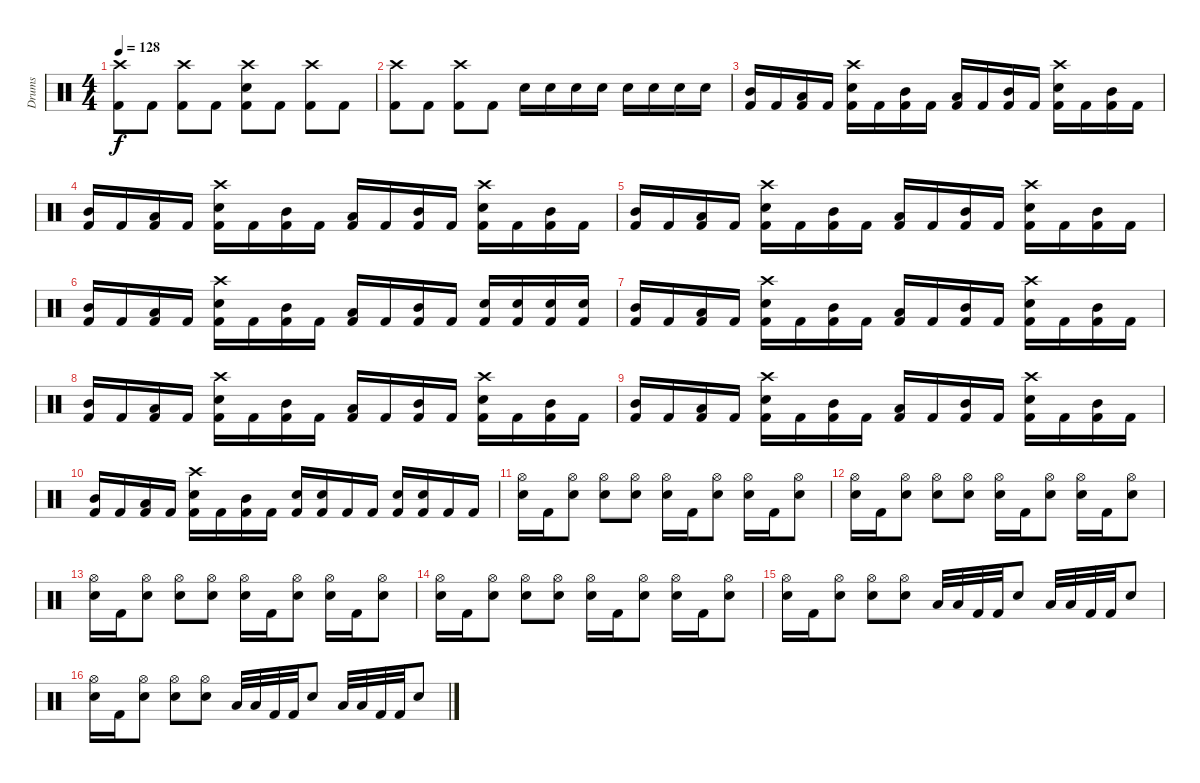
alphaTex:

\track ("Drums" "Drums") {instrument percussion}
\staff {score}
\articulation defaults
\ts (4 4)
\tempo 128
\clef neutral
\ks c
("Crash high (hit)" "Kick (hit) 2").8{dy f} "Kick (hit) 2".8 ("Crash high (hit)" "Kick (hit) 2").8 "Kick (hit) 2".8 ("Crash high (hit)" "Electric Snare (hit)" "Kick (hit) 2").8 "Kick (hit) 2".8 ("Crash high (hit)" "Kick (hit) 2").8 "Kick (hit) 2".8 |
("Crash high (hit)" "Kick (hit) 2").8 "Kick (hit) 2".8 ("Crash high (hit)" "Kick (hit) 2").8 "Kick (hit) 2".8 "Electric Snare (hit)".16 "Electric Snare (hit)".16 "Electric Snare (hit)".16 "Electric Snare (hit)".16 "Electric Snare (hit)".16 "Electric Snare (hit)".16 "Electric Snare (hit)".16 "Electric Snare (hit)".16 |
("Mid Tom (hit)" "Kick (hit) 2").16 "Kick (hit) 2".16 ("Low Tom (hit)" "Kick (hit) 2").16 "Kick (hit) 2".16 ("Crash high (hit)" "Electric Snare (hit)" "Kick (hit) 2").16 "Kick (hit) 2".16 ("Mid Tom (hit)" "Kick (hit) 2").16 "Kick (hit) 2".16 ("Low Tom (hit)" "Kick (hit) 2").16 "Kick (hit) 2".16 ("Mid Tom (hit)" "Kick (hit) 2").16 "Kick (hit) 2".16 ("Crash high (hit)" "Electric Snare (hit)" "Kick (hit) 2").16 "Kick (hit) 2".16 ("Mid Tom (hit)" "Kick (hit) 2").16 "Kick (hit) 2".16 |
("Mid Tom (hit)" "Kick (hit) 2").16 "Kick (hit) 2".16 ("Low Tom (hit)" "Kick (hit) 2").16 "Kick (hit) 2".16 ("Crash high (hit)" "Electric Snare (hit)" "Kick (hit) 2").16 "Kick (hit) 2".16 ("Mid Tom (hit)" "Kick (hit) 2").16 "Kick (hit) 2".16 ("Low Tom (hit)" "Kick (hit) 2").16 "Kick (hit) 2".16 ("Mid Tom (hit)" "Kick (hit) 2").16 "Kick (hit) 2".16 ("Crash high (hit)" "Electric Snare (hit)" "Kick (hit) 2").16 "Kick (hit) 2".16 ("Mid Tom (hit)" "Kick (hit) 2").16 "Kick (hit) 2".16 |
("Mid Tom (hit)" "Kick (hit) 2").16 "Kick (hit) 2".16 ("Low Tom (hit)" "Kick (hit) 2").16 "Kick (hit) 2".16 ("Crash high (hit)" "Electric Snare (hit)" "Kick (hit) 2").16 "Kick (hit) 2".16 ("Mid Tom (hit)" "Kick (hit) 2").16 "Kick (hit) 2".16 ("Low Tom (hit)" "Kick (hit) 2").16 "Kick (hit) 2".16 ("Mid Tom (hit)" "Kick (hit) 2").16 "Kick (hit) 2".16 ("Crash high (hit)" "Electric Snare (hit)" "Kick (hit) 2").16 "Kick (hit) 2".16 ("Mid Tom (hit)" "Kick (hit) 2").16 "Kick (hit) 2".16 |
("Mid Tom (hit)" "Kick (hit) 2").16 "Kick (hit) 2".16 ("Low Tom (hit)" "Kick (hit) 2").16 "Kick (hit) 2".16 ("Crash high (hit)" "Electric Snare (hit)" "Kick (hit) 2").16 "Kick (hit) 2".16 ("Mid Tom (hit)" "Kick (hit) 2").16 "Kick (hit) 2".16 ("Low Tom (hit)" "Kick (hit) 2").16 "Kick (hit) 2".16 ("Mid Tom (hit)" "Kick (hit) 2").16 "Kick (hit) 2".16 ("Electric Snare (hit)" "Kick (hit) 2").16 ("Electric Snare (hit)" "Kick (hit) 2").16 ("Electric Snare (hit)" "Kick (hit) 2").16 ("Electric Snare (hit)" "Kick (hit) 2").16 |
("Mid Tom (hit)" "Kick (hit) 2").16 "Kick (hit) 2".16 ("Low Tom (hit)" "Kick (hit) 2").16 "Kick (hit) 2".16 ("Crash high (hit)" "Electric Snare (hit)" "Kick (hit) 2").16 "Kick (hit) 2".16 ("Mid Tom (hit)" "Kick (hit) 2").16 "Kick (hit) 2".16 ("Low Tom (hit)" "Kick (hit) 2").16 "Kick (hit) 2".16 ("Mid Tom (hit)" "Kick (hit) 2").16 "Kick (hit) 2".16 ("Crash high (hit)" "Electric Snare (hit)" "Kick (hit) 2").16 "Kick (hit) 2".16 ("Mid Tom (hit)" "Kick (hit) 2").16 "Kick (hit) 2".16 |
("Mid Tom (hit)" "Kick (hit) 2").16 "Kick (hit) 2".16 ("Low Tom (hit)" "Kick (hit) 2").16 "Kick (hit) 2".16 ("Crash high (hit)" "Electric Snare (hit)" "Kick (hit) 2").16 "Kick (hit) 2".16 ("Mid Tom (hit)" "Kick (hit) 2").16 "Kick (hit) 2".16 ("Low Tom (hit)" "Kick (hit) 2").16 "Kick (hit) 2".16 ("Mid Tom (hit)" "Kick (hit) 2").16 "Kick (hit) 2".16 ("Crash high (hit)" "Electric Snare (hit)" "Kick (hit) 2").16 "Kick (hit) 2".16 ("Mid Tom (hit)" "Kick (hit) 2").16 "Kick (hit) 2".16 |
("Mid Tom (hit)" "Kick (hit) 2").16 "Kick (hit) 2".16 ("Low Tom (hit)" "Kick (hit) 2").16 "Kick (hit) 2".16 ("Crash high (hit)" "Electric Snare (hit)" "Kick (hit) 2").16 "Kick (hit) 2".16 ("Mid Tom (hit)" "Kick (hit) 2").16 "Kick (hit) 2".16 ("Low Tom (hit)" "Kick (hit) 2").16 "Kick (hit) 2".16 ("Mid Tom (hit)" "Kick (hit) 2").16 "Kick (hit) 2".16 ("Crash high (hit)" "Electric Snare (hit)" "Kick (hit) 2").16 "Kick (hit) 2".16 ("Mid Tom (hit)" "Kick (hit) 2").16 "Kick (hit) 2".16 |
("Mid Tom (hit)" "Kick (hit) 2").16 "Kick (hit) 2".16 ("Low Tom (hit)" "Kick (hit) 2").16 "Kick (hit) 2".16 ("Crash high (hit)" "Electric Snare (hit)" "Kick (hit) 2").16 "Kick (hit) 2".16 ("Mid Tom (hit)" "Kick (hit) 2").16 "Kick (hit) 2".16 ("Electric Snare (hit)" "Kick (hit) 2").16 ("Electric Snare (hit)" "Kick (hit) 2").16 "Kick (hit) 2".16 "Kick (hit) 2".16 ("Electric Snare (hit)" "Kick (hit) 2").16 ("Electric Snare (hit)" "Kick (hit) 2").16 "Kick (hit) 2".16 "Kick (hit) 2".16 |
("Hi-Hat (open)" "Electric Snare (hit)").16 "Kick (hit) 2".16 ("Hi-Hat (open)" "Electric Snare (hit)").8 ("Hi-Hat (open)" "Electric Snare (hit)").8 ("Hi-Hat (open)" "Electric Snare (hit)").8 ("Hi-Hat (open)" "Electric Snare (hit)").16 "Kick (hit) 2".16 ("Hi-Hat (open)" "Electric Snare (hit)").8 ("Hi-Hat (open)" "Electric Snare (hit)").16 "Kick (hit) 2".16 ("Hi-Hat (open)" "Electric Snare (hit)").8 |
("Hi-Hat (open)" "Electric Snare (hit)").16 "Kick (hit) 2".16 ("Hi-Hat (open)" "Electric Snare (hit)").8 ("Hi-Hat (open)" "Electric Snare (hit)").8 ("Hi-Hat (open)" "Electric Snare (hit)").8 ("Hi-Hat (open)" "Electric Snare (hit)").16 "Kick (hit) 2".16 ("Hi-Hat (open)" "Electric Snare (hit)").8 ("Hi-Hat (open)" "Electric Snare (hit)").16 "Kick (hit) 2".16 ("Hi-Hat (open)" "Electric Snare (hit)").8 |
("Hi-Hat (open)" "Electric Snare (hit)").16 "Kick (hit) 2".16 ("Hi-Hat (open)" "Electric Snare (hit)").8 ("Hi-Hat (open)" "Electric Snare (hit)").8 ("Hi-Hat (open)" "Electric Snare (hit)").8 ("Hi-Hat (open)" "Electric Snare (hit)").16 "Kick (hit) 2".16 ("Hi-Hat (open)" "Electric Snare (hit)").8 ("Hi-Hat (open)" "Electric Snare (hit)").16 "Kick (hit) 2".16 ("Hi-Hat (open)" "Electric Snare (hit)").8 |
("Hi-Hat (open)" "Electric Snare (hit)").16 "Kick (hit) 2".16 ("Hi-Hat (open)" "Electric Snare (hit)").8 ("Hi-Hat (open)" "Electric Snare (hit)").8 ("Hi-Hat (open)" "Electric Snare (hit)").8 ("Hi-Hat (open)" "Electric Snare (hit)").16 "Kick (hit) 2".16 ("Hi-Hat (open)" "Electric Snare (hit)").8 ("Hi-Hat (open)" "Electric Snare (hit)").16 "Kick (hit) 2".16 ("Hi-Hat (open)" "Electric Snare (hit)").8 |
("Hi-Hat (open)" "Electric Snare (hit)").16 "Kick (hit) 2".16 ("Hi-Hat (open)" "Electric Snare (hit)").8 ("Hi-Hat (open)" "Electric Snare (hit)").8 ("Hi-Hat (open)" "Electric Snare (hit)").8 "Low Tom (hit)".32 "Low Tom (hit)".32 "Kick (hit) 2".32 "Kick (hit) 2".32 "Electric Snare (hit)".8 "Low Tom (hit)".32 "Low Tom (hit)".32 "Kick (hit) 2".32 "Kick (hit) 2".32 "Electric Snare (hit)".8 |
("Hi-Hat (open)" "Electric Snare (hit)").16 "Kick (hit) 2".16 ("Hi-Hat (open)" "Electric Snare (hit)").8 ("Hi-Hat (open)" "Electric Snare (hit)").8 ("Hi-Hat (open)" "Electric Snare (hit)").8 "Low Tom (hit)".32 "Low Tom (hit)".32 "Kick (hit) 2".32 "Kick (hit) 2".32 "Electric Snare (hit)".8 "Low Tom (hit)".32 "Low Tom (hit)".32 "Kick (hit) 2".32 "Kick (hit) 2".32 "Electric Snare (hit)".8
